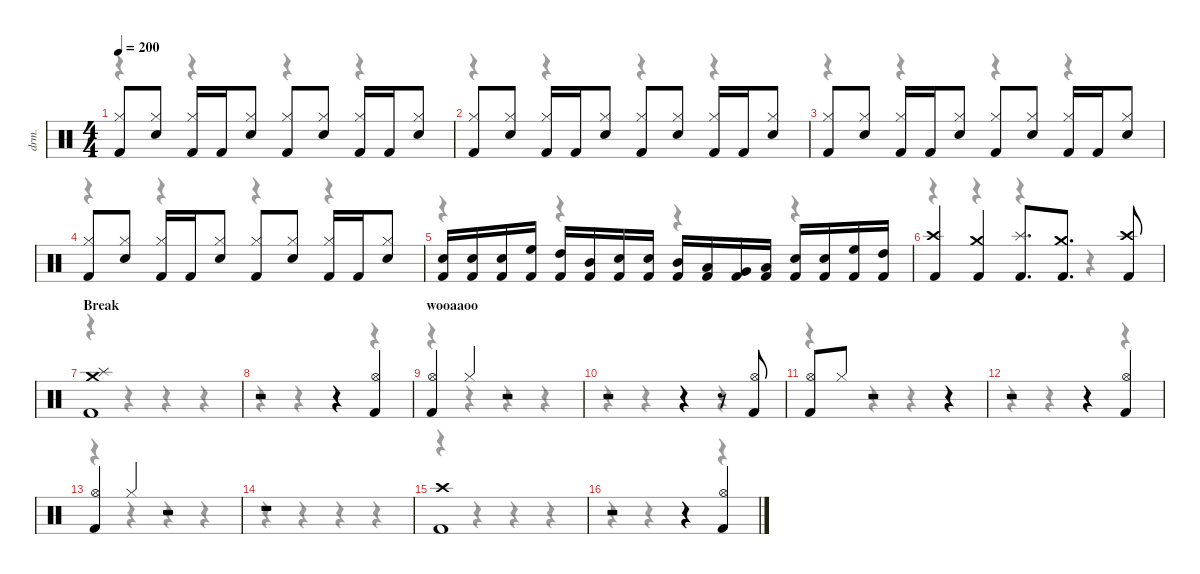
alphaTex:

\hideDynamics
\bracketExtendMode nobrackets
\otherSystemsTrackNameOrientation horizontal
\track ("Drums" "drm.") {instrument percussion}
\staff {score}
\articulation defaults
\voice
\ts (4 4)
\scale
0.977884
\tempo 200
\accidentals auto
\clef neutral
\ottava regular
\simile none
\ks c
("Kick (hit) 2" "Hi-Hat (closed)").8{dy f} ("Snare (hit) 2" "Hi-Hat (closed)").8 ("Kick (hit) 2" "Hi-Hat (closed)").16 "Kick (hit) 2".16 ("Snare (hit) 2" "Hi-Hat (closed)").8 ("Kick (hit) 2" "Hi-Hat (closed)").8 ("Snare (hit) 2" "Hi-Hat (closed)").8 ("Kick (hit) 2" "Hi-Hat (closed)").16 "Kick (hit) 2".16 ("Snare (hit) 2" "Hi-Hat (closed)").8 |
\scale
0.977884 ("Kick (hit) 2" "Hi-Hat (closed)").8 ("Snare (hit) 2" "Hi-Hat (closed)").8 ("Kick (hit) 2" "Hi-Hat (closed)").16 "Kick (hit) 2".16 ("Snare (hit) 2" "Hi-Hat (closed)").8 ("Kick (hit) 2" "Hi-Hat (closed)").8 ("Snare (hit) 2" "Hi-Hat (closed)").8 ("Kick (hit) 2" "Hi-Hat (closed)").16 "Kick (hit) 2".16 ("Snare (hit) 2" "Hi-Hat (closed)").8 |
\scale
1.10656 ("Kick (hit) 2" "Hi-Hat (closed)").8 ("Snare (hit) 2" "Hi-Hat (closed)").8 ("Kick (hit) 2" "Hi-Hat (closed)").16 "Kick (hit) 2".16 ("Snare (hit) 2" "Hi-Hat (closed)").8 ("Kick (hit) 2" "Hi-Hat (closed)").8 ("Snare (hit) 2" "Hi-Hat (closed)").8 ("Kick (hit) 2" "Hi-Hat (closed)").16 "Kick (hit) 2".16 ("Snare (hit) 2" "Hi-Hat (closed)").8 |
\scale
0.988476 ("Kick (hit) 2" "Hi-Hat (closed)").8 ("Snare (hit) 2" "Hi-Hat (closed)").8 ("Kick (hit) 2" "Hi-Hat (closed)").16 "Kick (hit) 2".16 ("Snare (hit) 2" "Hi-Hat (closed)").8 ("Kick (hit) 2" "Hi-Hat (closed)").8 ("Snare (hit) 2" "Hi-Hat (closed)").8 ("Kick (hit) 2" "Hi-Hat (closed)").16 "Kick (hit) 2".16 ("Snare (hit) 2" "Hi-Hat (closed)").8 |
\scale
0.968862 ("Kick (hit) 2" "Snare (hit) 2").16 ("Kick (hit) 2" "Snare (hit) 2").16 ("Kick (hit) 2" "Snare (hit) 2").16 ("Kick (hit) 2" "High Floor Tom (hit)").16 ("Kick (hit) 2" "High Tom (hit)").16 ("Kick (hit) 2" "Mid Tom (hit)").16 ("Kick (hit) 2" "Snare (hit) 2").16 ("Kick (hit) 2" "Snare (hit) 2").16 ("Kick (hit) 2" "Mid Tom (hit)").16 ("Kick (hit) 2" "Low Tom (hit)").16 ("Kick (hit) 2" "Very Low Tom (hit)").16 ("Kick (hit) 2" "Low Floor Tom (hit)").16 ("Kick (hit) 2" "Snare (hit) 2").16 ("Kick (hit) 2" "Snare (hit) 2").16 ("Kick (hit) 2" "High Floor Tom (hit)").16 ("Kick (hit) 2" "High Tom (hit)").16 |
\scale
0.985338 ("Kick (hit) 2" "Crash high (hit)").4 ("Kick (hit) 2" "Crash medium (hit)").4 ("Kick (hit) 2" "Splash (hit)").8{d} ("Kick (hit) 2" "Crash medium (hit)").8{d} ("Kick (hit) 2" "Crash high (hit)").8 |
\section ("" "Break")
\scale
0.968862 ("Kick (hit) 2" "Splash (hit)" "Crash medium (hit)").1 |
\scale
1.00495 r.2 r.4 ("Kick (hit) 2" "Hi-Hat (open)").4 |
\section ("" "wooaaoo")
\scale
0.988476 ("Kick (hit) 2" "Hi-Hat (open)").4 "Hi-Hat (closed)".4{dy ppp} r.2 |
\scale
0.988476 r.2 r.4 r.8 ("Kick (hit) 2" "Hi-Hat (open)").8{dy f} |
\scale
1.10617 ("Kick (hit) 2" "Hi-Hat (open)").8 "Hi-Hat (closed)".8{dy ppp} r.2 r.4 |
\scale
0.968469 r.2 r.4 ("Kick (hit) 2" "Hi-Hat (open)").4{dy f} |
\scale
0.988084 ("Kick (hit) 2" "Hi-Hat (open)").4 "Hi-Hat (closed)".4{dy ppp} r.2 |
\scale
0.988084 r.1 |
\scale
0.968469 ("Kick (hit) 2" "Crash high (hit)").1{dy f} |
\scale
1.00456 r.2 r.4 ("Kick (hit) 2" "Hi-Hat (open)").4
\voice
\clef neutral
\ottava regular
\simile none
\ks c
r.4{dy mf} r.4 r.4 r.4 |
r.4 r.4 r.4 r.4 |
r.4 r.4 r.4 r.4 |
r.4 r.4 r.4 r.4 |
r.4 r.4 r.4 r.4 |
r.4 r.4 r.4 r.4 |
r.4 r.4 r.4 r.4 |
r.4 r.4 r.4 r.4 |
r.4 r.4 r.4 r.4 |
r.4 r.4 r.4 r.4 |
r.4 r.4 r.4 r.4 |
r.4 r.4 r.4 r.4 |
r.4 r.4 r.4 r.4 |
r.4 r.4 r.4 r.4 |
r.4 r.4 r.4 r.4 |
r.4 r.4 r.4 r.4
